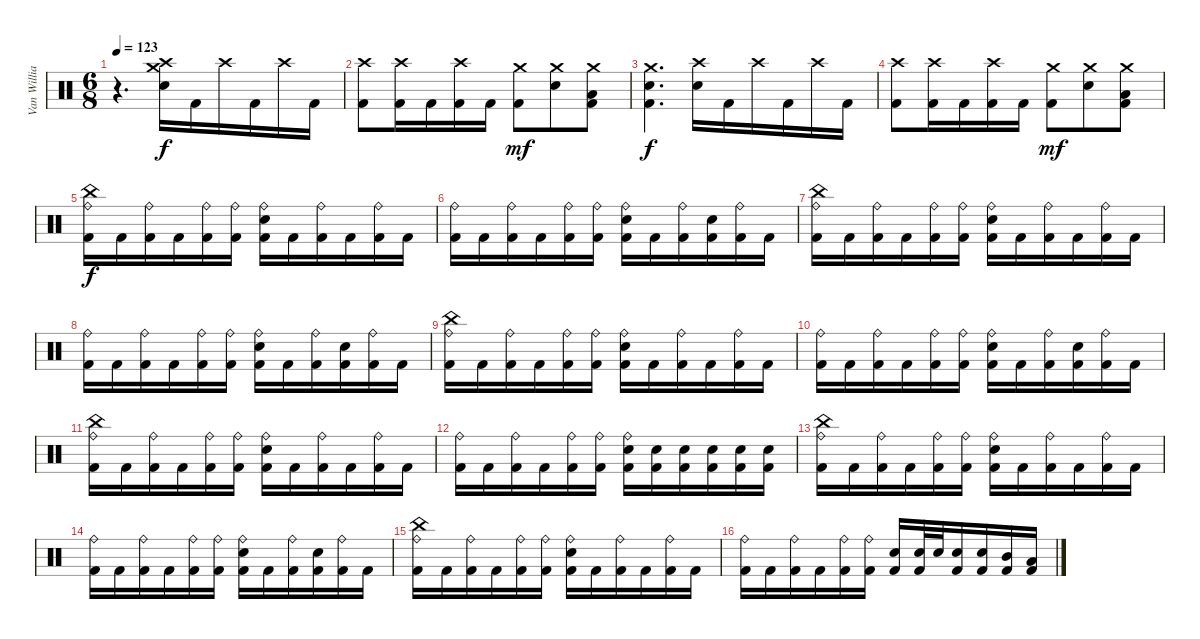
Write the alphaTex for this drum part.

\track ("Van Williams" "Van Willia") {instrument percussion}
\staff {score}
\articulation defaults
\ts (6 8)
\tempo 123
\clef neutral
\ks c
r.4{d dy mf} ("Crash high (hit)" "Crash medium (hit)" "Electric Snare (hit)").16{dy f} "Kick (hit) 2".16 "Crash high (hit)".16 "Kick (hit) 2".16 "Crash high (hit)".16 "Kick (hit) 2".16 |
("Crash high (hit)" "Kick (hit) 2").8 ("Crash high (hit)" "Kick (hit) 2").16 "Kick (hit) 2".16 ("Crash high (hit)" "Kick (hit) 2").16 "Kick (hit) 2".16 ("Crash medium (hit)" "Kick (hit) 2").8{dy mf} ("Crash medium (hit)" "Electric Snare (hit)").8 ("Crash medium (hit)" "Low Floor Tom (hit)" "Kick (hit) 2").8 |
("Crash medium (hit)" "Electric Snare (hit)" "Kick (hit) 2").4{d dy f} ("Crash high (hit)" "Electric Snare (hit)").16 "Kick (hit) 2".16 "Crash high (hit)".16 "Kick (hit) 2".16 "Crash high (hit)".16 "Kick (hit) 2".16 |
("Crash high (hit)" "Kick (hit) 2").8 ("Crash high (hit)" "Kick (hit) 2").16 "Kick (hit) 2".16 ("Crash high (hit)" "Kick (hit) 2").16 "Kick (hit) 2".16 ("Crash medium (hit)" "Kick (hit) 2").8{dy mf} ("Crash medium (hit)" "Electric Snare (hit)").8 ("Crash medium (hit)" "Low Floor Tom (hit)" "Kick (hit) 2").8 |
("Ride (bell)" "China (hit)" "Kick (hit) 2").16{dy f} "Kick (hit) 2".16 ("Ride (bell)" "Kick (hit) 2").16 "Kick (hit) 2".16 ("Ride (bell)" "Kick (hit) 2").16 ("Ride (bell)" "Kick (hit) 2").16 ("Ride (bell)" "Electric Snare (hit)" "Kick (hit) 2").16 "Kick (hit) 2".16 ("Ride (bell)" "Kick (hit) 2").16 "Kick (hit) 2".16 ("Ride (bell)" "Kick (hit) 2").16 "Kick (hit) 2".16 |
("Ride (bell)" "Kick (hit) 2").16 "Kick (hit) 2".16 ("Ride (bell)" "Kick (hit) 2").16 "Kick (hit) 2".16 ("Ride (bell)" "Kick (hit) 2").16 ("Ride (bell)" "Kick (hit) 2").16 ("Ride (bell)" "Electric Snare (hit)" "Kick (hit) 2").16 "Kick (hit) 2".16 ("Ride (bell)" "Kick (hit) 2").16 ("Electric Snare (hit)" "Kick (hit) 2").16 ("Ride (bell)" "Kick (hit) 2").16 "Kick (hit) 2".16 |
("Ride (bell)" "China (hit)" "Kick (hit) 2").16 "Kick (hit) 2".16 ("Ride (bell)" "Kick (hit) 2").16 "Kick (hit) 2".16 ("Ride (bell)" "Kick (hit) 2").16 ("Ride (bell)" "Kick (hit) 2").16 ("Ride (bell)" "Electric Snare (hit)" "Kick (hit) 2").16 "Kick (hit) 2".16 ("Ride (bell)" "Kick (hit) 2").16 "Kick (hit) 2".16 ("Ride (bell)" "Kick (hit) 2").16 "Kick (hit) 2".16 |
("Ride (bell)" "Kick (hit) 2").16 "Kick (hit) 2".16 ("Ride (bell)" "Kick (hit) 2").16 "Kick (hit) 2".16 ("Ride (bell)" "Kick (hit) 2").16 ("Ride (bell)" "Kick (hit) 2").16 ("Ride (bell)" "Electric Snare (hit)" "Kick (hit) 2").16 "Kick (hit) 2".16 ("Ride (bell)" "Kick (hit) 2").16 ("Electric Snare (hit)" "Kick (hit) 2").16 ("Ride (bell)" "Kick (hit) 2").16 "Kick (hit) 2".16 |
("Ride (bell)" "China (hit)" "Kick (hit) 2").16 "Kick (hit) 2".16 ("Ride (bell)" "Kick (hit) 2").16 "Kick (hit) 2".16 ("Ride (bell)" "Kick (hit) 2").16 ("Ride (bell)" "Kick (hit) 2").16 ("Ride (bell)" "Electric Snare (hit)" "Kick (hit) 2").16 "Kick (hit) 2".16 ("Ride (bell)" "Kick (hit) 2").16 "Kick (hit) 2".16 ("Ride (bell)" "Kick (hit) 2").16 "Kick (hit) 2".16 |
("Ride (bell)" "Kick (hit) 2").16 "Kick (hit) 2".16 ("Ride (bell)" "Kick (hit) 2").16 "Kick (hit) 2".16 ("Ride (bell)" "Kick (hit) 2").16 ("Ride (bell)" "Kick (hit) 2").16 ("Ride (bell)" "Electric Snare (hit)" "Kick (hit) 2").16 "Kick (hit) 2".16 ("Ride (bell)" "Kick (hit) 2").16 ("Electric Snare (hit)" "Kick (hit) 2").16 ("Ride (bell)" "Kick (hit) 2").16 "Kick (hit) 2".16 |
("Ride (bell)" "China (hit)" "Kick (hit) 2").16 "Kick (hit) 2".16 ("Ride (bell)" "Kick (hit) 2").16 "Kick (hit) 2".16 ("Ride (bell)" "Kick (hit) 2").16 ("Ride (bell)" "Kick (hit) 2").16 ("Ride (bell)" "Electric Snare (hit)" "Kick (hit) 2").16 "Kick (hit) 2".16 ("Ride (bell)" "Kick (hit) 2").16 "Kick (hit) 2".16 ("Ride (bell)" "Kick (hit) 2").16 "Kick (hit) 2".16 |
("Ride (bell)" "Kick (hit) 2").16 "Kick (hit) 2".16 ("Ride (bell)" "Kick (hit) 2").16 "Kick (hit) 2".16 ("Ride (bell)" "Kick (hit) 2").16 ("Ride (bell)" "Kick (hit) 2").16 ("Ride (bell)" "Electric Snare (hit)" "Kick (hit) 2").16 ("Electric Snare (hit)" "Kick (hit) 2").16 ("Electric Snare (hit)" "Kick (hit) 2").16 ("Electric Snare (hit)" "Kick (hit) 2").16 ("Electric Snare (hit)" "Kick (hit) 2").16 ("Electric Snare (hit)" "Kick (hit) 2").16 |
("Ride (bell)" "China (hit)" "Kick (hit) 2").16 "Kick (hit) 2".16 ("Ride (bell)" "Kick (hit) 2").16 "Kick (hit) 2".16 ("Ride (bell)" "Kick (hit) 2").16 ("Ride (bell)" "Kick (hit) 2").16 ("Ride (bell)" "Electric Snare (hit)" "Kick (hit) 2").16 "Kick (hit) 2".16 ("Ride (bell)" "Kick (hit) 2").16 "Kick (hit) 2".16 ("Ride (bell)" "Kick (hit) 2").16 "Kick (hit) 2".16 |
("Ride (bell)" "Kick (hit) 2").16 "Kick (hit) 2".16 ("Ride (bell)" "Kick (hit) 2").16 "Kick (hit) 2".16 ("Ride (bell)" "Kick (hit) 2").16 ("Ride (bell)" "Kick (hit) 2").16 ("Ride (bell)" "Electric Snare (hit)" "Kick (hit) 2").16 "Kick (hit) 2".16 ("Ride (bell)" "Kick (hit) 2").16 ("Electric Snare (hit)" "Kick (hit) 2").16 ("Ride (bell)" "Kick (hit) 2").16 "Kick (hit) 2".16 |
("Ride (bell)" "China (hit)" "Kick (hit) 2").16 "Kick (hit) 2".16 ("Ride (bell)" "Kick (hit) 2").16 "Kick (hit) 2".16 ("Ride (bell)" "Kick (hit) 2").16 ("Ride (bell)" "Kick (hit) 2").16 ("Ride (bell)" "Electric Snare (hit)" "Kick (hit) 2").16 "Kick (hit) 2".16 ("Ride (bell)" "Kick (hit) 2").16 "Kick (hit) 2".16 ("Ride (bell)" "Kick (hit) 2").16 "Kick (hit) 2".16 |
("Ride (bell)" "Kick (hit) 2").16 "Kick (hit) 2".16 ("Ride (bell)" "Kick (hit) 2").16 "Kick (hit) 2".16 ("Ride (bell)" "Kick (hit) 2").16 ("Ride (bell)" "Kick (hit) 2").16 ("Electric Snare (hit)" "Kick (hit) 2").16 ("Electric Snare (hit)" "Kick (hit) 2").32 "Electric Snare (hit)".32 ("Electric Snare (hit)" "Kick (hit) 2").16 ("Electric Snare (hit)" "Kick (hit) 2").16 ("Mid Tom (hit)" "Kick (hit) 2").16 ("Low Tom (hit)" "Kick (hit) 2").16
